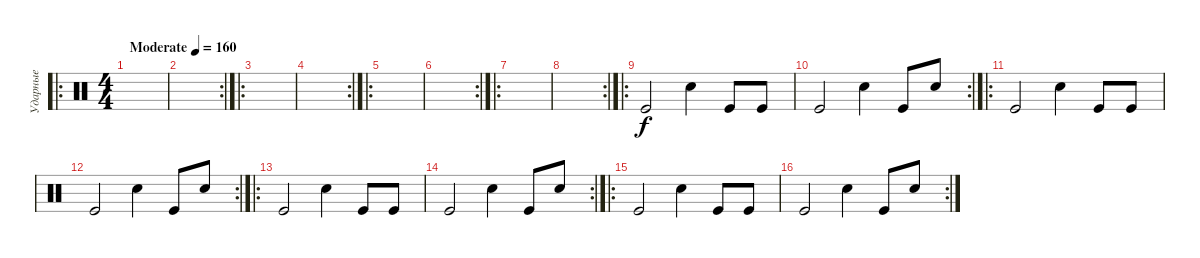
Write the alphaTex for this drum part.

\track ("Ударные" "Ударные") {instrument percussion}
\staff {score}
\articulation defaults
\ro
\ts (4 4)
\tempo (160 "Moderate")
\clef neutral
\ks c
|
\rc 2
|
\ro
|
\rc 2
|
\ro
|
\rc 2
|
\ro
|
\rc 2
|
\ro "Kick (hit)".2 "Electric Snare (hit)".4 "Kick (hit)".8 "Kick (hit)".8
|
\rc 2 "Kick (hit)".2 "Electric Snare (hit)".4 "Kick (hit)".8 "Electric Snare (hit)".8
|
\ro "Kick (hit)".2 "Electric Snare (hit)".4 "Kick (hit)".8 "Kick (hit)".8
|
\rc 2 "Kick (hit)".2 "Electric Snare (hit)".4 "Kick (hit)".8 "Electric Snare (hit)".8
|
\ro "Kick (hit)".2 "Electric Snare (hit)".4 "Kick (hit)".8 "Kick (hit)".8
|
\rc 2 "Kick (hit)".2 "Electric Snare (hit)".4 "Kick (hit)".8 "Electric Snare (hit)".8
|
\ro "Kick (hit)".2 "Electric Snare (hit)".4 "Kick (hit)".8 "Kick (hit)".8
|
\rc 2 "Kick (hit)".2 "Electric Snare (hit)".4 "Kick (hit)".8 "Electric Snare (hit)".8
